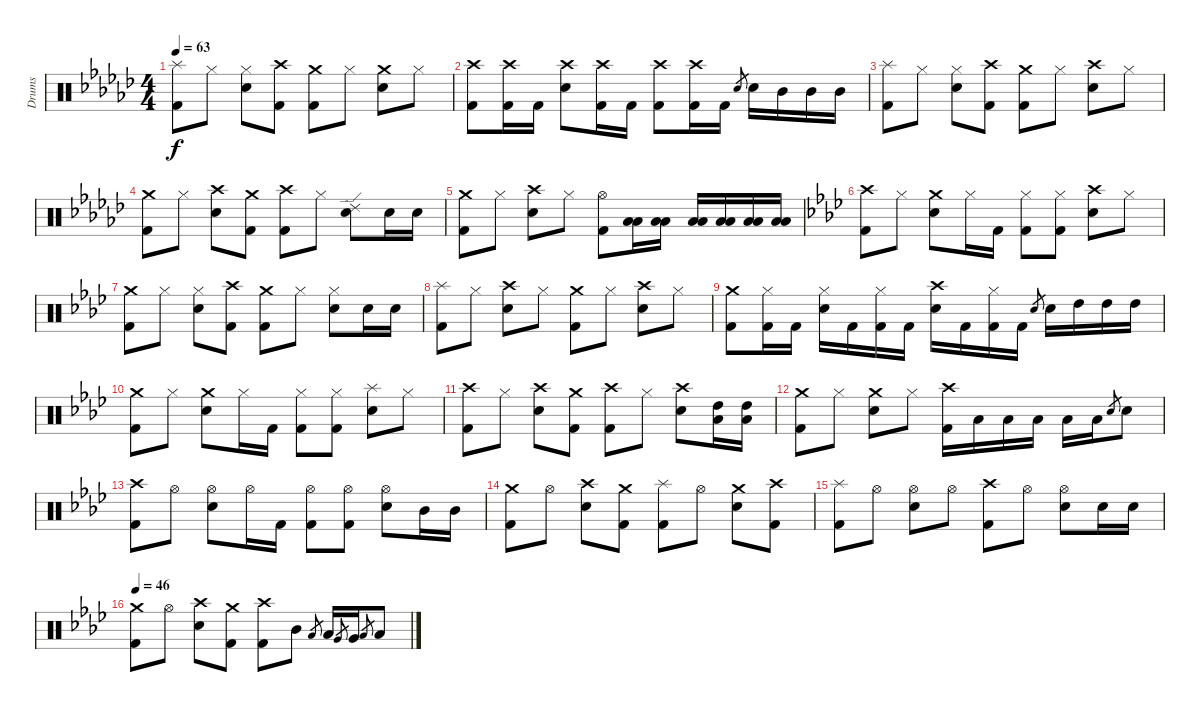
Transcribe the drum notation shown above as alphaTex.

\track ("Drums" "Drums") {instrument percussion}
\staff {score}
\articulation defaults
\ts (4 4)
\tempo 63
\clef neutral
\ks ebminor
("Splash (hit)" "Kick (hit) 2").8{dy f} "Hi-Hat (closed)".8 ("Hi-Hat (closed)" "Snare (hit) 2").8 ("Crash high (hit)" "Kick (hit) 2").8 ("Crash medium (hit)" "Kick (hit) 2").8 "Hi-Hat (closed)".8 ("Crash medium (hit)" "Snare (hit) 2").8 "Hi-Hat (closed)".8 |
("Crash high (hit)" "Kick (hit) 2").8 ("Crash high (hit)" "Kick (hit) 2").16 "Kick (hit) 2".16 ("Crash high (hit)" "Snare (hit) 2").8 ("Crash high (hit)" "Kick (hit) 2").16 "Kick (hit) 2".16 ("Crash high (hit)" "Kick (hit) 2").8 ("Crash high (hit)" "Kick (hit) 2").16 "Kick (hit) 2".16 "Snare (hit) 2".8{gr} "Snare (hit) 2".16 "Mid Tom (hit)".16 "Mid Tom (hit)".16 "Mid Tom (hit)".16 |
("Splash (hit)" "Kick (hit) 2").8 "Hi-Hat (closed)".8 ("Hi-Hat (closed)" "Snare (hit) 2").8 ("Crash high (hit)" "Kick (hit) 2").8 ("Crash medium (hit)" "Kick (hit) 2").8 "Hi-Hat (closed)".8 ("Crash high (hit)" "Snare (hit) 2").8 "Hi-Hat (closed)".8 |
("Crash medium (hit)" "Kick (hit) 2").8 "Hi-Hat (closed)".8 ("Crash high (hit)" "Snare (hit) 2").8 ("Crash medium (hit)" "Kick (hit) 2").8 ("Crash high (hit)" "Kick (hit) 2").8 "Hi-Hat (closed)".8 ("Ride (edge) 2" "Snare (hit) 2").8 "Snare (hit) 2".16 "Snare (hit) 2".16 |
("Crash medium (hit)" "Kick (hit) 2").8 "Hi-Hat (closed)".8 ("Crash high (hit)" "Snare (hit) 2").8 "Hi-Hat (closed)".8 ("Hi-Hat (open)" "Kick (hit) 2").8 ("Low Tom (hit)" "Low Floor Tom (hit)").16 ("Low Tom (hit)" "Low Floor Tom (hit)").16 ("Low Tom (hit)" "Low Floor Tom (hit)").16 ("Low Tom (hit)" "Low Floor Tom (hit)").16 ("Low Tom (hit)" "Low Floor Tom (hit)").16 ("Low Tom (hit)" "Low Floor Tom (hit)").16 |
\ks fminor
("Crash high (hit)" "Kick (hit) 2").8 "Hi-Hat (closed)".8 ("Crash medium (hit)" "Snare (hit) 2").8 "Hi-Hat (closed)".16 "Kick (hit) 2".16 ("Hi-Hat (closed)" "Kick (hit) 2").8 ("Hi-Hat (closed)" "Kick (hit) 2").8 ("Crash high (hit)" "Snare (hit) 2").8 "Hi-Hat (closed)".8 |
("Crash medium (hit)" "Kick (hit) 2").8 "Hi-Hat (closed)".8 ("Hi-Hat (closed)" "Snare (hit) 2").8 ("Crash high (hit)" "Kick (hit) 2").8 ("Crash medium (hit)" "Kick (hit) 2").8 "Hi-Hat (closed)".8 ("Hi-Hat (closed)" "Snare (hit) 2").8 "Snare (hit) 2".16 "Snare (hit) 2".16 |
("Splash (hit)" "Kick (hit) 2").8 "Hi-Hat (closed)".8 ("Crash high (hit)" "Snare (hit) 2").8 "Hi-Hat (closed)".8 ("Crash medium (hit)" "Kick (hit) 2").8 "Hi-Hat (closed)".8 ("Crash high (hit)" "Snare (hit) 2").8 "Hi-Hat (closed)".8 |
("Crash medium (hit)" "Kick (hit) 2").8 ("Hi-Hat (closed)" "Kick (hit) 2").16 "Kick (hit) 2".16 ("Hi-Hat (closed)" "Snare (hit) 2").16 "Kick (hit) 2".16 ("Hi-Hat (closed)" "Kick (hit) 2").16 "Kick (hit) 2".16 ("Crash high (hit)" "Snare (hit) 2").16 "Kick (hit) 2".16 ("Hi-Hat (closed)" "Kick (hit) 2").16 "Kick (hit) 2".16 "Snare (hit) 2".8{gr} "Snare (hit) 2".16 "High Tom (hit)".16 "High Tom (hit)".16 "High Tom (hit)".16 |
("Crash medium (hit)" "Kick (hit) 2").8 "Hi-Hat (closed)".8 ("Crash medium (hit)" "Snare (hit) 2").8 "Hi-Hat (closed)".16 "Kick (hit) 2".16 ("Hi-Hat (closed)" "Kick (hit) 2").8 ("Hi-Hat (closed)" "Kick (hit) 2").8 ("Splash (hit)" "Snare (hit) 2").8 "Hi-Hat (closed)".8 |
("Crash high (hit)" "Kick (hit) 2").8 "Hi-Hat (closed)".8 ("Crash high (hit)" "Snare (hit) 2").8 ("Crash medium (hit)" "Kick (hit) 2").8 ("Crash high (hit)" "Kick (hit) 2").8 "Hi-Hat (closed)".8 ("Crash high (hit)" "Snare (hit) 2").8 ("High Tom (hit)" "Low Tom (hit)").16 ("High Tom (hit)" "Low Tom (hit)").16 |
("Crash medium (hit)" "Kick (hit) 2").8 "Hi-Hat (closed)".8 ("Crash medium (hit)" "Snare (hit) 2").8 "Hi-Hat (closed)".8 ("Crash high (hit)" "Kick (hit) 2").16 "Low Tom (hit)".16 "Low Tom (hit)".16 "Low Tom (hit)".16 "Low Tom (hit)".16 "Low Tom (hit)".16 "Snare (hit) 2".8{gr} "Snare (hit) 2".8 |
("Crash high (hit)" "Kick (hit) 2").8 "Hi-Hat (open)".8 ("Hi-Hat (open)" "Snare (hit) 2").8 "Hi-Hat (open)".16 "Kick (hit) 2".16 ("Hi-Hat (open)" "Kick (hit) 2").8 ("Hi-Hat (open)" "Kick (hit) 2").8 ("Hi-Hat (open)" "Snare (hit) 2").8 "Mid Tom (hit)".16 "Mid Tom (hit)".16 |
("Crash medium (hit)" "Kick (hit) 2").8 "Hi-Hat (open)".8 ("Crash high (hit)" "Snare (hit) 2").8 ("Crash medium (hit)" "Kick (hit) 2").8 ("Splash (hit)" "Kick (hit) 2").8 "Hi-Hat (open)".8 ("Crash medium (hit)" "Snare (hit) 2").8 ("Crash high (hit)" "Kick (hit) 2").8 |
("Splash (hit)" "Kick (hit) 2").8 "Hi-Hat (open)".8 ("Hi-Hat (open)" "Snare (hit) 2").8 "Hi-Hat (open)".8 ("Crash high (hit)" "Kick (hit) 2").8 "Hi-Hat (open)".8 ("Hi-Hat (open)" "Snare (hit) 2").8 "Snare (hit) 2".16 "Snare (hit) 2".16 |
\tempo 46
("Crash medium (hit)" "Kick (hit) 2").8 "Hi-Hat (open)".8 ("Crash high (hit)" "Snare (hit) 2").8 ("Crash medium (hit)" "Kick (hit) 2").8 ("Crash high (hit)" "Kick (hit) 2").8 "Mid Tom (hit)".8 "Low Tom (hit)".8{gr} "Low Tom (hit)".16 "Very Low Tom (hit)".8{gr} "Very Low Tom (hit)".16 "Low Floor Tom (hit)".8{gr} "Low Floor Tom (hit)".8
